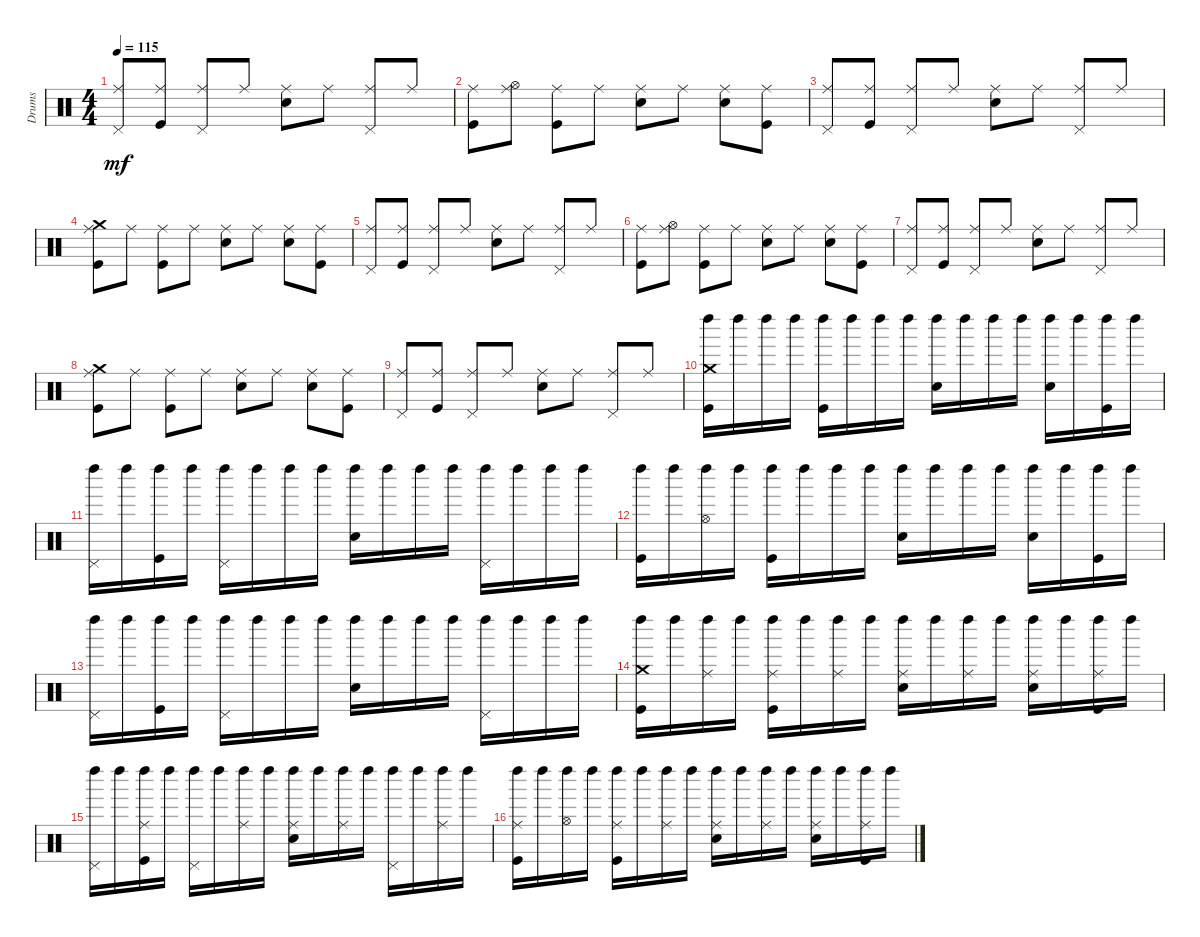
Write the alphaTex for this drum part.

\track ("Drums" "Drums") {instrument percussion}
\staff {score}
\articulation defaults
\ts (4 4)
\tempo 115
\clef neutral
\ks c
("Ride (middle)" "Pedal Hi-Hat (hit)").8{dy mf} ("Ride (middle)" "Kick (hit)").8 ("Ride (middle)" "Pedal Hi-Hat (hit)").8 "Ride (middle)".8 ("Ride (middle)" "Snare (hit) 2").8 "Ride (middle)".8 ("Ride (middle)" "Pedal Hi-Hat (hit)").8 "Ride (middle)".8 |
("Ride (middle)" "Kick (hit)").8 ("Ride (middle)" "Hi-Hat (open)").8 ("Ride (middle)" "Kick (hit)").8 "Ride (middle)".8 ("Ride (middle)" "Snare (hit) 2").8 "Ride (middle)".8 ("Ride (middle)" "Snare (hit) 2").8 ("Ride (middle)" "Kick (hit)").8 |
("Ride (middle)" "Pedal Hi-Hat (hit)").8 ("Ride (middle)" "Kick (hit)").8 ("Ride (middle)" "Pedal Hi-Hat (hit)").8 "Ride (middle)".8 ("Ride (middle)" "Snare (hit) 2").8 "Ride (middle)".8 ("Ride (middle)" "Pedal Hi-Hat (hit)").8 "Ride (middle)".8 |
("Ride (middle)" "Crash medium (hit)" "Kick (hit)").8 "Ride (middle)".8 ("Ride (middle)" "Kick (hit)").8 "Ride (middle)".8 ("Ride (middle)" "Snare (hit) 2").8 "Ride (middle)".8 ("Ride (middle)" "Snare (hit) 2").8 ("Ride (middle)" "Kick (hit)").8 |
("Ride (middle)" "Pedal Hi-Hat (hit)").8 ("Ride (middle)" "Kick (hit)").8 ("Ride (middle)" "Pedal Hi-Hat (hit)").8 "Ride (middle)".8 ("Ride (middle)" "Snare (hit) 2").8 "Ride (middle)".8 ("Ride (middle)" "Pedal Hi-Hat (hit)").8 "Ride (middle)".8 |
("Ride (middle)" "Kick (hit)").8 ("Ride (middle)" "Hi-Hat (open)").8 ("Ride (middle)" "Kick (hit)").8 "Ride (middle)".8 ("Ride (middle)" "Snare (hit) 2").8 "Ride (middle)".8 ("Ride (middle)" "Snare (hit) 2").8 ("Ride (middle)" "Kick (hit)").8 |
("Ride (middle)" "Pedal Hi-Hat (hit)").8 ("Ride (middle)" "Kick (hit)").8 ("Ride (middle)" "Pedal Hi-Hat (hit)").8 "Ride (middle)".8 ("Ride (middle)" "Snare (hit) 2").8 "Ride (middle)".8 ("Ride (middle)" "Pedal Hi-Hat (hit)").8 "Ride (middle)".8 |
("Ride (middle)" "Crash medium (hit)" "Kick (hit)").8 "Ride (middle)".8 ("Ride (middle)" "Kick (hit)").8 "Ride (middle)".8 ("Ride (middle)" "Snare (hit) 2").8 "Ride (middle)".8 ("Ride (middle)" "Snare (hit) 2").8 ("Ride (middle)" "Kick (hit)").8 |
("Ride (middle)" "Pedal Hi-Hat (hit)").8 ("Ride (middle)" "Kick (hit)").8 ("Ride (middle)" "Pedal Hi-Hat (hit)").8 "Ride (middle)".8 ("Ride (middle)" "Snare (hit) 2").8 "Ride (middle)".8 ("Ride (middle)" "Pedal Hi-Hat (hit)").8 "Ride (middle)".8 |
("Left Maraca (hit)" "Crash medium (hit)" "Kick (hit)").16 "Left Maraca (hit)".16 "Left Maraca (hit)".16 "Left Maraca (hit)".16 ("Left Maraca (hit)" "Kick (hit)").16 "Left Maraca (hit)".16 "Left Maraca (hit)".16 "Left Maraca (hit)".16 ("Left Maraca (hit)" "Snare (hit) 2").16 "Left Maraca (hit)".16 "Left Maraca (hit)".16 "Left Maraca (hit)".16 ("Left Maraca (hit)" "Snare (hit) 2").16 "Left Maraca (hit)".16 ("Left Maraca (hit)" "Kick (hit)").16 "Left Maraca (hit)".16 |
("Left Maraca (hit)" "Pedal Hi-Hat (hit)").16 "Left Maraca (hit)".16 ("Left Maraca (hit)" "Kick (hit)").16 "Left Maraca (hit)".16 ("Left Maraca (hit)" "Pedal Hi-Hat (hit)").16 "Left Maraca (hit)".16 "Left Maraca (hit)".16 "Left Maraca (hit)".16 ("Left Maraca (hit)" "Snare (hit) 2").16 "Left Maraca (hit)".16 "Left Maraca (hit)".16 "Left Maraca (hit)".16 ("Left Maraca (hit)" "Pedal Hi-Hat (hit)").16 "Left Maraca (hit)".16 "Left Maraca (hit)".16 "Left Maraca (hit)".16 |
("Left Maraca (hit)" "Kick (hit)").16 "Left Maraca (hit)".16 ("Left Maraca (hit)" "Hi-Hat (open)").16 "Left Maraca (hit)".16 ("Left Maraca (hit)" "Kick (hit)").16 "Left Maraca (hit)".16 "Left Maraca (hit)".16 "Left Maraca (hit)".16 ("Left Maraca (hit)" "Snare (hit) 2").16 "Left Maraca (hit)".16 "Left Maraca (hit)".16 "Left Maraca (hit)".16 ("Left Maraca (hit)" "Snare (hit) 2").16 "Left Maraca (hit)".16 ("Left Maraca (hit)" "Kick (hit)").16 "Left Maraca (hit)".16 |
("Left Maraca (hit)" "Pedal Hi-Hat (hit)").16 "Left Maraca (hit)".16 ("Left Maraca (hit)" "Kick (hit)").16 "Left Maraca (hit)".16 ("Left Maraca (hit)" "Pedal Hi-Hat (hit)").16 "Left Maraca (hit)".16 "Left Maraca (hit)".16 "Left Maraca (hit)".16 ("Left Maraca (hit)" "Snare (hit) 2").16 "Left Maraca (hit)".16 "Left Maraca (hit)".16 "Left Maraca (hit)".16 ("Left Maraca (hit)" "Pedal Hi-Hat (hit)").16 "Left Maraca (hit)".16 "Left Maraca (hit)".16 "Left Maraca (hit)".16 |
("Left Maraca (hit)" "Crash medium (hit)" "Kick (hit)").16 "Left Maraca (hit)".16 ("Left Maraca (hit)" "Ride (middle)").16 "Left Maraca (hit)".16 ("Left Maraca (hit)" "Ride (middle)" "Kick (hit)").16 "Left Maraca (hit)".16 ("Left Maraca (hit)" "Ride (middle)").16 "Left Maraca (hit)".16 ("Left Maraca (hit)" "Ride (middle)" "Snare (hit) 2").16 "Left Maraca (hit)".16 ("Left Maraca (hit)" "Ride (middle)").16 "Left Maraca (hit)".16 ("Left Maraca (hit)" "Ride (middle)" "Snare (hit) 2").16 "Left Maraca (hit)".16 ("Left Maraca (hit)" "Ride (middle)" "Kick (hit)").16 "Left Maraca (hit)".16 |
("Left Maraca (hit)" "Pedal Hi-Hat (hit)").16 "Left Maraca (hit)".16 ("Left Maraca (hit)" "Ride (middle)" "Kick (hit)").16 "Left Maraca (hit)".16 ("Left Maraca (hit)" "Pedal Hi-Hat (hit)").16 "Left Maraca (hit)".16 ("Left Maraca (hit)" "Ride (middle)").16 "Left Maraca (hit)".16 ("Left Maraca (hit)" "Ride (middle)" "Snare (hit) 2").16 "Left Maraca (hit)".16 ("Left Maraca (hit)" "Ride (middle)").16 "Left Maraca (hit)".16 ("Left Maraca (hit)" "Pedal Hi-Hat (hit)").16 "Left Maraca (hit)".16 ("Left Maraca (hit)" "Ride (middle)").16 "Left Maraca (hit)".16 |
("Left Maraca (hit)" "Ride (middle)" "Kick (hit)").16 "Left Maraca (hit)".16 ("Left Maraca (hit)" "Hi-Hat (open)").16 "Left Maraca (hit)".16 ("Left Maraca (hit)" "Ride (middle)" "Kick (hit)").16 "Left Maraca (hit)".16 ("Left Maraca (hit)" "Ride (middle)").16 "Left Maraca (hit)".16 ("Left Maraca (hit)" "Ride (middle)" "Snare (hit) 2").16 "Left Maraca (hit)".16 ("Left Maraca (hit)" "Ride (middle)").16 "Left Maraca (hit)".16 ("Left Maraca (hit)" "Ride (middle)" "Snare (hit) 2").16 "Left Maraca (hit)".16 ("Left Maraca (hit)" "Ride (middle)" "Kick (hit)").16 "Left Maraca (hit)".16
